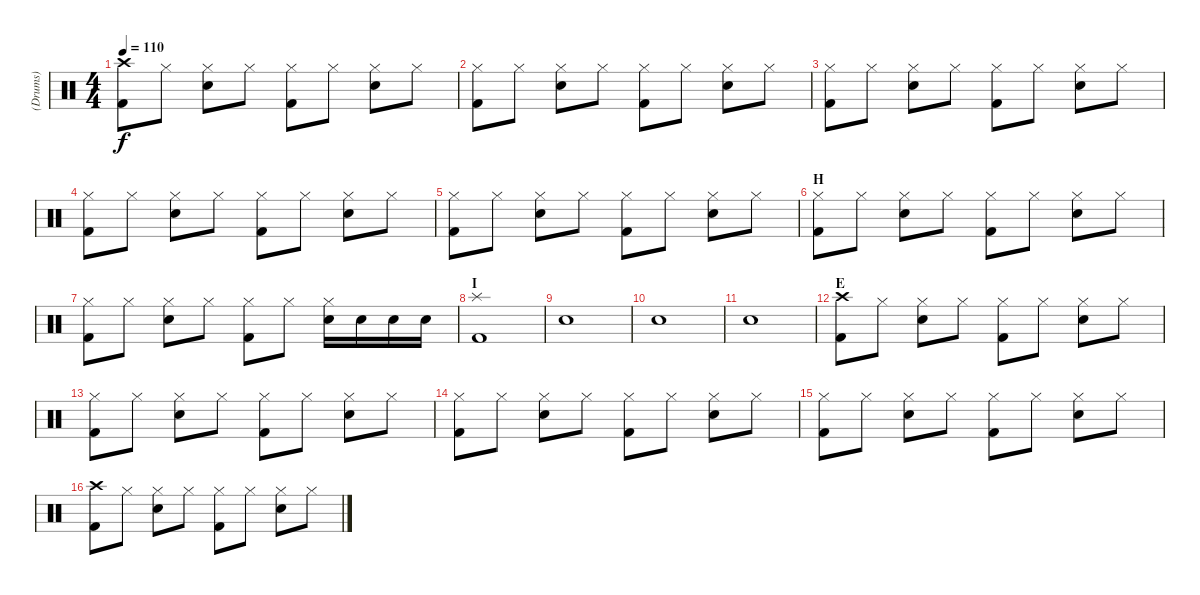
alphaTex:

\track ("(Drums)" "(Drums)") {instrument percussion}
\staff {score}
\articulation defaults
\ts (4 4)
\tempo 110
\clef neutral
\ks c
("Crash high (hit)" "Kick (hit) 2").8{dy f} "Hi-Hat (closed)".8 ("Hi-Hat (closed)" "Electric Snare (hit)").8 "Hi-Hat (closed)".8 ("Hi-Hat (closed)" "Kick (hit) 2").8 "Hi-Hat (closed)".8 ("Hi-Hat (closed)" "Electric Snare (hit)").8 "Hi-Hat (closed)".8 |
("Hi-Hat (closed)" "Kick (hit) 2").8 "Hi-Hat (closed)".8 ("Hi-Hat (closed)" "Electric Snare (hit)").8 "Hi-Hat (closed)".8 ("Hi-Hat (closed)" "Kick (hit) 2").8 "Hi-Hat (closed)".8 ("Hi-Hat (closed)" "Electric Snare (hit)").8 "Hi-Hat (closed)".8 |
("Hi-Hat (closed)" "Kick (hit) 2").8 "Hi-Hat (closed)".8 ("Hi-Hat (closed)" "Electric Snare (hit)").8 "Hi-Hat (closed)".8 ("Hi-Hat (closed)" "Kick (hit) 2").8 "Hi-Hat (closed)".8 ("Hi-Hat (closed)" "Electric Snare (hit)").8 "Hi-Hat (closed)".8 |
("Hi-Hat (closed)" "Kick (hit) 2").8 "Hi-Hat (closed)".8 ("Hi-Hat (closed)" "Electric Snare (hit)").8 "Hi-Hat (closed)".8 ("Hi-Hat (closed)" "Kick (hit) 2").8 "Hi-Hat (closed)".8 ("Hi-Hat (closed)" "Electric Snare (hit)").8 "Hi-Hat (closed)".8 |
("Hi-Hat (closed)" "Kick (hit) 2").8 "Hi-Hat (closed)".8 ("Hi-Hat (closed)" "Electric Snare (hit)").8 "Hi-Hat (closed)".8 ("Hi-Hat (closed)" "Kick (hit) 2").8 "Hi-Hat (closed)".8 ("Hi-Hat (closed)" "Electric Snare (hit)").8 "Hi-Hat (closed)".8 |
\section ("" "H")
("Hi-Hat (closed)" "Kick (hit) 2").8 "Hi-Hat (closed)".8 ("Hi-Hat (closed)" "Electric Snare (hit)").8 "Hi-Hat (closed)".8 ("Hi-Hat (closed)" "Kick (hit) 2").8 "Hi-Hat (closed)".8 ("Hi-Hat (closed)" "Electric Snare (hit)").8 "Hi-Hat (closed)".8 |
("Hi-Hat (closed)" "Kick (hit) 2").8 "Hi-Hat (closed)".8 ("Hi-Hat (closed)" "Electric Snare (hit)").8 "Hi-Hat (closed)".8 ("Hi-Hat (closed)" "Kick (hit) 2").8 "Hi-Hat (closed)".8 ("Hi-Hat (closed)" "Electric Snare (hit)").16 "Electric Snare (hit)".16 "Electric Snare (hit)".16 "Electric Snare (hit)".16 |
\section ("" "I")
("Splash (hit)" "Kick (hit) 2").1 |
"Electric Snare (hit)".1 |
"Electric Snare (hit)".1 |
"Electric Snare (hit)".1 |
\section ("" "E")
("Crash high (hit)" "Kick (hit) 2").8 "Hi-Hat (closed)".8 ("Hi-Hat (closed)" "Electric Snare (hit)").8 "Hi-Hat (closed)".8 ("Hi-Hat (closed)" "Kick (hit) 2").8 "Hi-Hat (closed)".8 ("Hi-Hat (closed)" "Electric Snare (hit)").8 "Hi-Hat (closed)".8 |
("Hi-Hat (closed)" "Kick (hit) 2").8 "Hi-Hat (closed)".8 ("Hi-Hat (closed)" "Electric Snare (hit)").8 "Hi-Hat (closed)".8 ("Hi-Hat (closed)" "Kick (hit) 2").8 "Hi-Hat (closed)".8 ("Hi-Hat (closed)" "Electric Snare (hit)").8 "Hi-Hat (closed)".8 |
("Hi-Hat (closed)" "Kick (hit) 2").8 "Hi-Hat (closed)".8 ("Hi-Hat (closed)" "Electric Snare (hit)").8 "Hi-Hat (closed)".8 ("Hi-Hat (closed)" "Kick (hit) 2").8 "Hi-Hat (closed)".8 ("Hi-Hat (closed)" "Electric Snare (hit)").8 "Hi-Hat (closed)".8 |
("Hi-Hat (closed)" "Kick (hit) 2").8 "Hi-Hat (closed)".8 ("Hi-Hat (closed)" "Electric Snare (hit)").8 "Hi-Hat (closed)".8 ("Hi-Hat (closed)" "Kick (hit) 2").8 "Hi-Hat (closed)".8 ("Hi-Hat (closed)" "Electric Snare (hit)").8 "Hi-Hat (closed)".8 |
("Crash high (hit)" "Kick (hit) 2").8 "Hi-Hat (closed)".8 ("Hi-Hat (closed)" "Electric Snare (hit)").8 "Hi-Hat (closed)".8 ("Hi-Hat (closed)" "Kick (hit) 2").8 "Hi-Hat (closed)".8 ("Hi-Hat (closed)" "Electric Snare (hit)").8 "Hi-Hat (closed)".8
